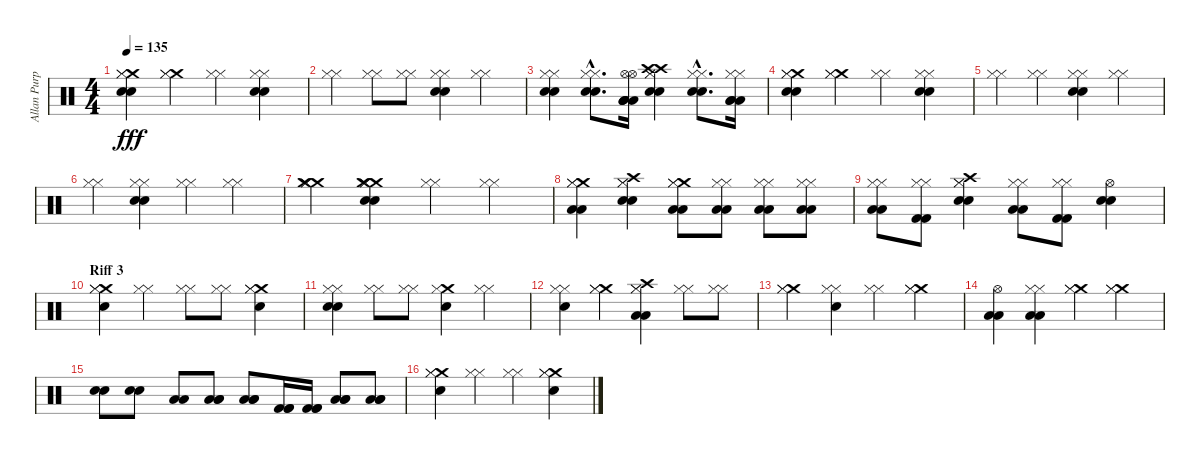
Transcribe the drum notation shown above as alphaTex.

\track ("Allan Purple" "Allan Purp") {instrument percussion}
\staff {score}
\articulation defaults
\ts (4 4)
\tempo 135
\clef neutral
\ks c
("Crash medium (hit)" "Hi-Hat (closed)" "Hi-Hat (closed)" "Electric Snare (hit)" "Electric Snare (hit)").4{dy fff} ("Crash medium (hit)" "Hi-Hat (closed)" "Hi-Hat (closed)").4 ("Hi-Hat (closed)" "Hi-Hat (closed)").4 ("Hi-Hat (closed)" "Hi-Hat (closed)" "Electric Snare (hit)" "Electric Snare (hit)").4 |
("Hi-Hat (closed)" "Hi-Hat (closed)").4 ("Hi-Hat (closed)" "Hi-Hat (closed)").8 ("Hi-Hat (closed)" "Hi-Hat (closed)").8 ("Hi-Hat (closed)" "Hi-Hat (closed)" "Electric Snare (hit)" "Electric Snare (hit)").4 ("Hi-Hat (closed)" "Hi-Hat (closed)").4 |
("Hi-Hat (closed)" "Hi-Hat (closed)" "Electric Snare (hit)" "Electric Snare (hit)").4 ("Hi-Hat (closed)"{hac} "Hi-Hat (closed)"{hac} "Electric Snare (hit)"{hac} "Electric Snare (hit)"{hac}).8{d} ("Low Tom (hit)" "Low Tom (hit)" "Hi-Hat (open)" "Hi-Hat (open)" "Low Tom (hit)" "Low Tom (hit)").16 ("Crash high (hit)" "Crash high (hit)" "Hi-Hat (closed)" "Hi-Hat (closed)" "Electric Snare (hit)" "Electric Snare (hit)").4 ("Hi-Hat (closed)"{hac} "Hi-Hat (closed)"{hac} "Electric Snare (hit)"{hac} "Electric Snare (hit)"{hac}).8{d} ("Low Tom (hit)" "Hi-Hat (closed)" "Hi-Hat (closed)" "Low Tom (hit)" "Low Tom (hit)").16 |
("Crash medium (hit)" "Hi-Hat (closed)" "Hi-Hat (closed)" "Electric Snare (hit)" "Electric Snare (hit)").4 ("Crash medium (hit)" "Hi-Hat (closed)" "Hi-Hat (closed)").4 ("Hi-Hat (closed)" "Hi-Hat (closed)").4 ("Hi-Hat (closed)" "Hi-Hat (closed)" "Electric Snare (hit)" "Electric Snare (hit)").4 |
("Hi-Hat (closed)" "Hi-Hat (closed)").4 ("Hi-Hat (closed)" "Hi-Hat (closed)").4 ("Hi-Hat (closed)" "Hi-Hat (closed)" "Electric Snare (hit)" "Electric Snare (hit)").4 ("Hi-Hat (closed)" "Hi-Hat (closed)").4 |
("Hi-Hat (closed)" "Hi-Hat (closed)").4 ("Hi-Hat (closed)" "Hi-Hat (closed)" "Electric Snare (hit)" "Electric Snare (hit)").4 ("Hi-Hat (closed)" "Hi-Hat (closed)").4 ("Hi-Hat (closed)" "Hi-Hat (closed)").4 |
("Crash medium (hit)" "Crash medium (hit)" "Hi-Hat (closed)" "Hi-Hat (closed)").4 ("Crash medium (hit)" "Crash medium (hit)" "Hi-Hat (closed)" "Hi-Hat (closed)" "Electric Snare (hit)" "Electric Snare (hit)").4 ("Hi-Hat (closed)" "Hi-Hat (closed)").4 ("Hi-Hat (closed)" "Hi-Hat (closed)").4 |
("Crash medium (hit)" "Hi-Hat (closed)" "Hi-Hat (closed)" "Low Tom (hit)" "Low Tom (hit)").4 ("Crash high (hit)" "Hi-Hat (closed)" "Hi-Hat (closed)" "Electric Snare (hit)" "Electric Snare (hit)").4 ("Crash medium (hit)" "Hi-Hat (closed)" "Hi-Hat (closed)" "Low Tom (hit)" "Low Tom (hit)").8 ("Hi-Hat (closed)" "Hi-Hat (closed)" "Low Tom (hit)" "Low Tom (hit)").8 ("Hi-Hat (closed)" "Hi-Hat (closed)" "Low Floor Tom (hit)" "Low Floor Tom (hit)").8 ("Hi-Hat (closed)" "Hi-Hat (closed)" "Low Floor Tom (hit)" "Low Floor Tom (hit)").8 |
("Hi-Hat (closed)" "Hi-Hat (closed)" "Low Tom (hit)" "Low Tom (hit)").8 ("Hi-Hat (closed)" "Hi-Hat (closed)" "Kick (hit) 2" "Kick (hit) 2").8 ("Crash high (hit)" "Hi-Hat (closed)" "Hi-Hat (closed)" "Electric Snare (hit)" "Electric Snare (hit)").4 ("Hi-Hat (closed)" "Hi-Hat (closed)" "Low Tom (hit)" "Low Tom (hit)").8 ("Hi-Hat (closed)" "Hi-Hat (closed)" "Kick (hit) 2" "Kick (hit) 2").8 ("Hi-Hat (open)" "Electric Snare (hit)" "Electric Snare (hit)").4 |
\section ("" "Riff 3")
("Crash medium (hit)" "Hi-Hat (closed)" "Hi-Hat (closed)" "Electric Snare (hit)").4 ("Hi-Hat (closed)" "Hi-Hat (closed)").4 ("Hi-Hat (closed)" "Hi-Hat (closed)").8 ("Hi-Hat (closed)" "Hi-Hat (closed)").8 ("Crash medium (hit)" "Hi-Hat (closed)" "Hi-Hat (closed)" "Electric Snare (hit)").4 |
("Hi-Hat (closed)" "Hi-Hat (closed)" "Electric Snare (hit)" "Electric Snare (hit)").4 ("Hi-Hat (closed)" "Hi-Hat (closed)").8 ("Hi-Hat (closed)" "Hi-Hat (closed)").8 ("Crash medium (hit)" "Snare (hit)" "Hi-Hat (closed)").4 ("Hi-Hat (closed)" "Hi-Hat (closed)").4 |
("Hi-Hat (closed)" "Hi-Hat (closed)" "Electric Snare (hit)").4 ("Crash medium (hit)" "Hi-Hat (closed)" "Hi-Hat (closed)").4 ("Crash high (hit)" "Hi-Hat (closed)" "Hi-Hat (closed)" "Low Tom (hit)" "Low Tom (hit)").4 ("Hi-Hat (closed)" "Hi-Hat (closed)").8 ("Hi-Hat (closed)" "Hi-Hat (closed)").8 |
("Crash medium (hit)" "Hi-Hat (closed)" "Hi-Hat (closed)").4 ("Hi-Hat (closed)" "Hi-Hat (closed)" "Electric Snare (hit)").4 ("Hi-Hat (closed)" "Hi-Hat (closed)").4 ("Crash medium (hit)" "Hi-Hat (closed)" "Hi-Hat (closed)").4 |
("Hi-Hat (open)" "Low Tom (hit)" "Low Tom (hit)").4 ("Hi-Hat (closed)" "Hi-Hat (closed)" "Low Tom (hit)" "Low Tom (hit)").4 ("Crash medium (hit)" "Hi-Hat (closed)" "Hi-Hat (closed)").4 ("Crash medium (hit)" "Hi-Hat (closed)" "Hi-Hat (closed)").4 |
("Electric Snare (hit)" "Electric Snare (hit)").8 ("Electric Snare (hit)" "Electric Snare (hit)").8 ("Low Tom (hit)" "Low Tom (hit)").8 ("Low Tom (hit)" "Low Tom (hit)" "Low Tom (hit)").8 ("Low Tom (hit)" "Low Tom (hit)" "Low Tom (hit)").8 ("Kick (hit) 2" "Kick (hit) 2" "Kick (hit) 2").16 ("Kick (hit) 2" "Kick (hit) 2" "Kick (hit) 2").16 ("Low Tom (hit)" "Low Tom (hit)" "Low Tom (hit)").8 ("Low Tom (hit)" "Low Tom (hit)" "Low Tom (hit)").8 |
("Crash medium (hit)" "Hi-Hat (closed)" "Hi-Hat (closed)" "Electric Snare (hit)").4 ("Hi-Hat (closed)" "Hi-Hat (closed)").4 ("Hi-Hat (closed)" "Hi-Hat (closed)").4 ("Crash medium (hit)" "Hi-Hat (closed)" "Hi-Hat (closed)" "Electric Snare (hit)").4
